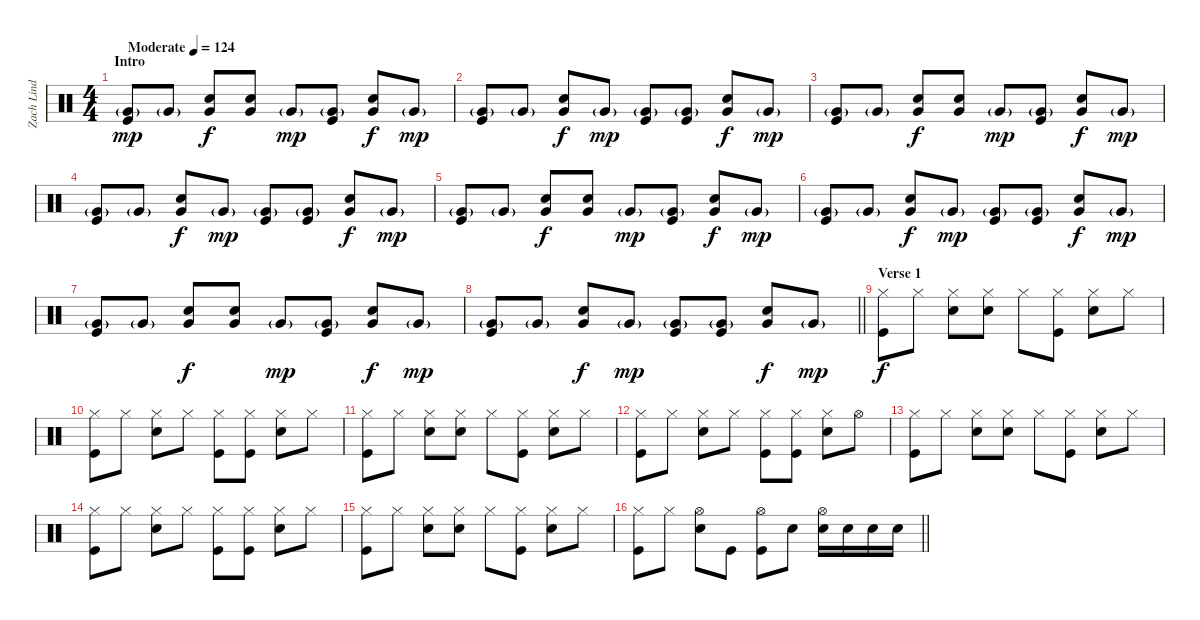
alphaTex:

\track ("Zach Lind - Drums" "Zach Lind ") {instrument percussion}
\staff {score}
\articulation defaults
\ts (4 4)
\section ("" "Intro")
\tempo (124 "Moderate")
\clef neutral
\ks c
("Kick (hit)" "Very Low Tom (hit)"{g}).8{dy mp} "Very Low Tom (hit)"{g}.8 ("Snare (hit) 2" "Very Low Tom (hit)").8{dy f} ("Snare (hit) 2" "Very Low Tom (hit)").8 "Very Low Tom (hit)"{g}.8{dy mp} ("Kick (hit)" "Very Low Tom (hit)"{g}).8 ("Snare (hit) 2" "Very Low Tom (hit)").8{dy f} "Very Low Tom (hit)"{g}.8{dy mp} |
("Kick (hit)" "Very Low Tom (hit)"{g}).8 "Very Low Tom (hit)"{g}.8 ("Snare (hit) 2" "Very Low Tom (hit)").8{dy f} "Very Low Tom (hit)"{g}.8{dy mp} ("Kick (hit)" "Very Low Tom (hit)"{g}).8 ("Kick (hit)" "Very Low Tom (hit)"{g}).8 ("Snare (hit) 2" "Very Low Tom (hit)").8{dy f} "Very Low Tom (hit)"{g}.8{dy mp} |
("Kick (hit)" "Very Low Tom (hit)"{g}).8 "Very Low Tom (hit)"{g}.8 ("Snare (hit) 2" "Very Low Tom (hit)").8{dy f} ("Snare (hit) 2" "Very Low Tom (hit)").8 "Very Low Tom (hit)"{g}.8{dy mp} ("Kick (hit)" "Very Low Tom (hit)"{g}).8 ("Snare (hit) 2" "Very Low Tom (hit)").8{dy f} "Very Low Tom (hit)"{g}.8{dy mp} |
("Kick (hit)" "Very Low Tom (hit)"{g}).8 "Very Low Tom (hit)"{g}.8 ("Snare (hit) 2" "Very Low Tom (hit)").8{dy f} "Very Low Tom (hit)"{g}.8{dy mp} ("Kick (hit)" "Very Low Tom (hit)"{g}).8 ("Kick (hit)" "Very Low Tom (hit)"{g}).8 ("Snare (hit) 2" "Very Low Tom (hit)").8{dy f} "Very Low Tom (hit)"{g}.8{dy mp} |
("Kick (hit)" "Very Low Tom (hit)"{g}).8 "Very Low Tom (hit)"{g}.8 ("Snare (hit) 2" "Very Low Tom (hit)").8{dy f} ("Snare (hit) 2" "Very Low Tom (hit)").8 "Very Low Tom (hit)"{g}.8{dy mp} ("Kick (hit)" "Very Low Tom (hit)"{g}).8 ("Snare (hit) 2" "Very Low Tom (hit)").8{dy f} "Very Low Tom (hit)"{g}.8{dy mp} |
("Kick (hit)" "Very Low Tom (hit)"{g}).8 "Very Low Tom (hit)"{g}.8 ("Snare (hit) 2" "Very Low Tom (hit)").8{dy f} "Very Low Tom (hit)"{g}.8{dy mp} ("Kick (hit)" "Very Low Tom (hit)"{g}).8 ("Kick (hit)" "Very Low Tom (hit)"{g}).8 ("Snare (hit) 2" "Very Low Tom (hit)").8{dy f} "Very Low Tom (hit)"{g}.8{dy mp} |
("Kick (hit)" "Very Low Tom (hit)"{g}).8 "Very Low Tom (hit)"{g}.8 ("Snare (hit) 2" "Very Low Tom (hit)").8{dy f} ("Snare (hit) 2" "Very Low Tom (hit)").8 "Very Low Tom (hit)"{g}.8{dy mp} ("Kick (hit)" "Very Low Tom (hit)"{g}).8 ("Snare (hit) 2" "Very Low Tom (hit)").8{dy f} "Very Low Tom (hit)"{g}.8{dy mp} |
\barLineRight lightlight
("Kick (hit)" "Very Low Tom (hit)"{g}).8 "Very Low Tom (hit)"{g}.8 ("Snare (hit) 2" "Very Low Tom (hit)").8{dy f} "Very Low Tom (hit)"{g}.8{dy mp} ("Kick (hit)" "Very Low Tom (hit)"{g}).8 ("Kick (hit)" "Very Low Tom (hit)"{g}).8 ("Snare (hit) 2" "Very Low Tom (hit)").8{dy f} "Very Low Tom (hit)"{g}.8{dy mp} |
\section ("" "Verse 1")
("Kick (hit)" "Hi-Hat (closed)").8{dy f} "Hi-Hat (closed)".8 ("Snare (hit) 2" "Hi-Hat (closed)").8 ("Snare (hit) 2" "Hi-Hat (closed)").8 "Hi-Hat (closed)".8 ("Kick (hit)" "Hi-Hat (closed)").8 ("Snare (hit) 2" "Hi-Hat (closed)").8 "Hi-Hat (closed)".8 |
("Kick (hit)" "Hi-Hat (closed)").8 "Hi-Hat (closed)".8 ("Snare (hit) 2" "Hi-Hat (closed)").8 "Hi-Hat (closed)".8 ("Kick (hit)" "Hi-Hat (closed)").8 ("Kick (hit)" "Hi-Hat (closed)").8 ("Snare (hit) 2" "Hi-Hat (closed)").8 "Hi-Hat (closed)".8 |
("Kick (hit)" "Hi-Hat (closed)").8 "Hi-Hat (closed)".8 ("Snare (hit) 2" "Hi-Hat (closed)").8 ("Snare (hit) 2" "Hi-Hat (closed)").8 "Hi-Hat (closed)".8 ("Kick (hit)" "Hi-Hat (closed)").8 ("Snare (hit) 2" "Hi-Hat (closed)").8 "Hi-Hat (closed)".8 |
("Kick (hit)" "Hi-Hat (closed)").8 "Hi-Hat (closed)".8 ("Snare (hit) 2" "Hi-Hat (closed)").8 "Hi-Hat (closed)".8 ("Kick (hit)" "Hi-Hat (closed)").8 ("Kick (hit)" "Hi-Hat (closed)").8 ("Snare (hit) 2" "Hi-Hat (closed)").8 "Hi-Hat (open)".8 |
("Kick (hit)" "Hi-Hat (closed)").8 "Hi-Hat (closed)".8 ("Snare (hit) 2" "Hi-Hat (closed)").8 ("Snare (hit) 2" "Hi-Hat (closed)").8 "Hi-Hat (closed)".8 ("Kick (hit)" "Hi-Hat (closed)").8 ("Snare (hit) 2" "Hi-Hat (closed)").8 "Hi-Hat (closed)".8 |
("Kick (hit)" "Hi-Hat (closed)").8 "Hi-Hat (closed)".8 ("Snare (hit) 2" "Hi-Hat (closed)").8 "Hi-Hat (closed)".8 ("Kick (hit)" "Hi-Hat (closed)").8 ("Kick (hit)" "Hi-Hat (closed)").8 ("Snare (hit) 2" "Hi-Hat (closed)").8 "Hi-Hat (closed)".8 |
("Kick (hit)" "Hi-Hat (closed)").8 "Hi-Hat (closed)".8 ("Snare (hit) 2" "Hi-Hat (closed)").8 ("Snare (hit) 2" "Hi-Hat (closed)").8 "Hi-Hat (closed)".8 ("Kick (hit)" "Hi-Hat (closed)").8 ("Snare (hit) 2" "Hi-Hat (closed)").8 "Hi-Hat (closed)".8 |
\barLineRight lightlight
("Kick (hit)" "Hi-Hat (closed)").8 "Hi-Hat (closed)".8 ("Snare (hit) 2" "Hi-Hat (open)").8 "Kick (hit)".8 ("Kick (hit)" "Hi-Hat (open)").8 "Snare (hit) 2".8 ("Snare (hit) 2" "Hi-Hat (open)").16 "Snare (hit) 2".16 "Snare (hit) 2".16 "Snare (hit) 2".16
